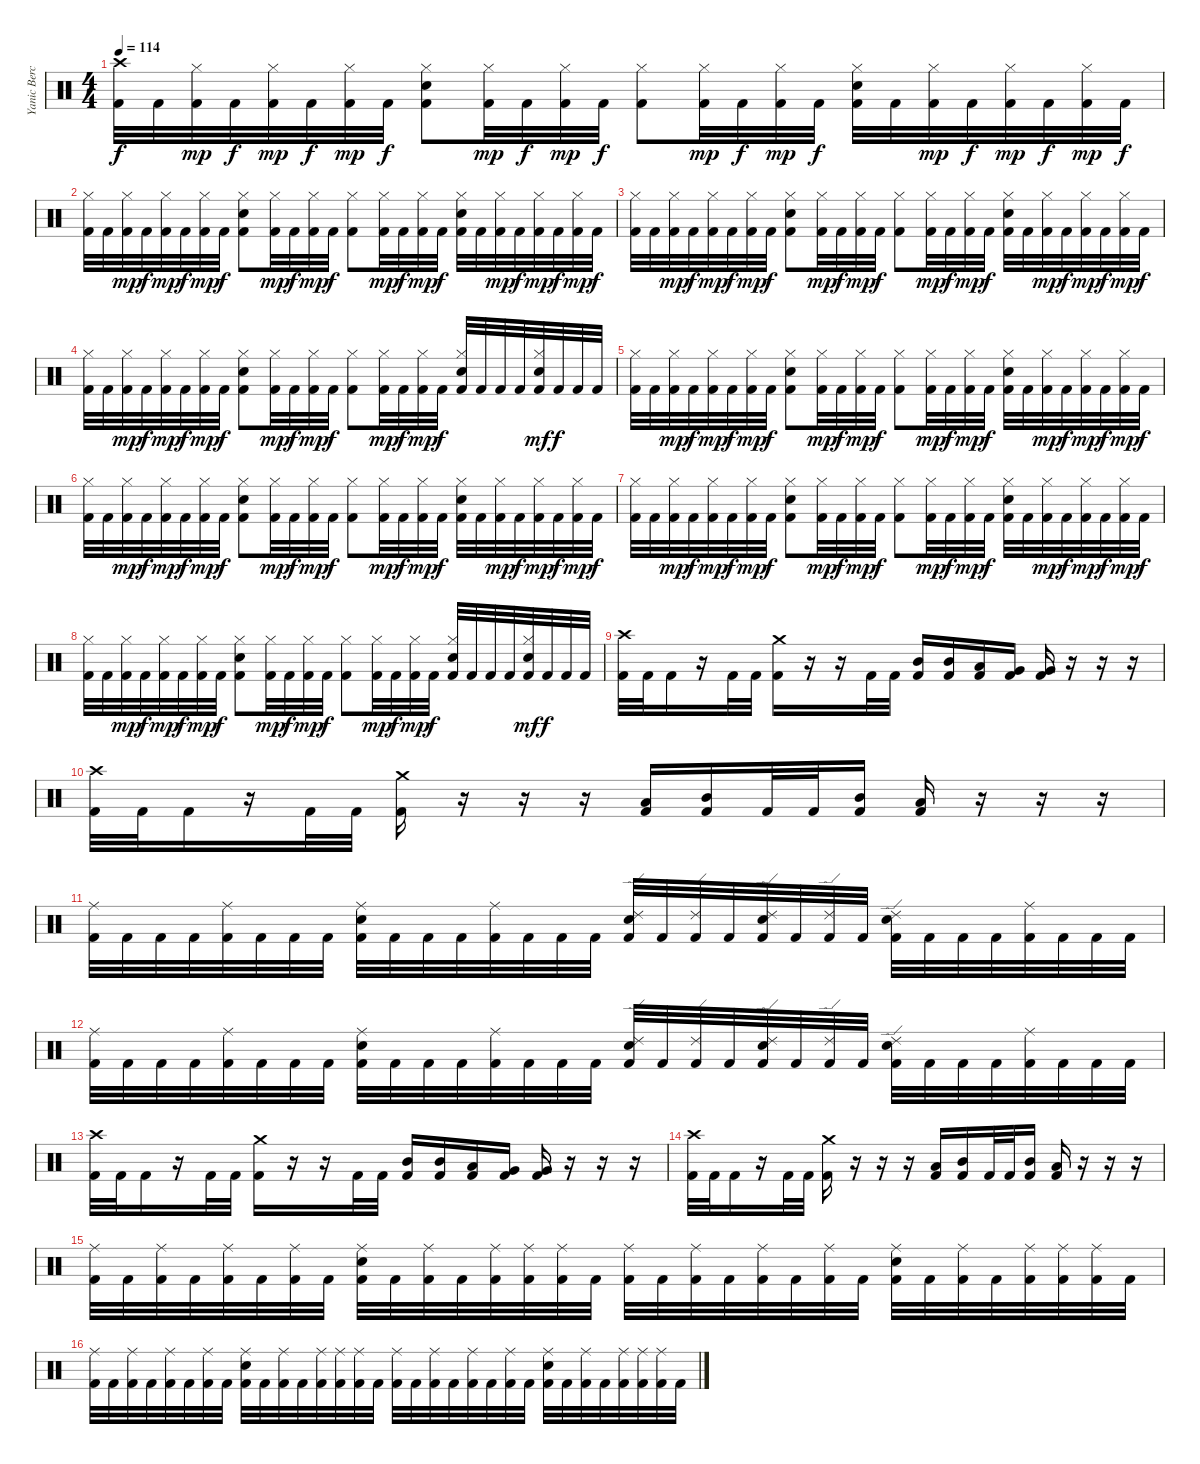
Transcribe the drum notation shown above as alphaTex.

\track ("Yanic Bercier" "Yanic Berc") {instrument percussion}
\staff {score}
\articulation defaults
\ts (4 4)
\tempo 114
\clef neutral
\ks c
("Crash high (hit)" "Kick (hit) 2").32{dy f} "Kick (hit) 2".32 ("Hi-Hat (closed)" "Kick (hit) 2").32{dy mp} "Kick (hit) 2".32{dy f} ("Hi-Hat (closed)" "Kick (hit) 2").32{dy mp} "Kick (hit) 2".32{dy f} ("Hi-Hat (closed)" "Kick (hit) 2").32{dy mp} "Kick (hit) 2".32{dy f} ("Hi-Hat (closed)" "Electric Snare (hit)" "Kick (hit) 2").8 ("Hi-Hat (closed)" "Kick (hit) 2").32{dy mp} "Kick (hit) 2".32{dy f} ("Hi-Hat (closed)" "Kick (hit) 2").32{dy mp} "Kick (hit) 2".32{dy f} ("Hi-Hat (closed)" "Kick (hit) 2").8 ("Hi-Hat (closed)" "Kick (hit) 2").32{dy mp} "Kick (hit) 2".32{dy f} ("Hi-Hat (closed)" "Kick (hit) 2").32{dy mp} "Kick (hit) 2".32{dy f} ("Hi-Hat (closed)" "Electric Snare (hit)" "Kick (hit) 2").32 "Kick (hit) 2".32 ("Hi-Hat (closed)" "Kick (hit) 2").32{dy mp} "Kick (hit) 2".32{dy f} ("Hi-Hat (closed)" "Kick (hit) 2").32{dy mp} "Kick (hit) 2".32{dy f} ("Hi-Hat (closed)" "Kick (hit) 2").32{dy mp} "Kick (hit) 2".32{dy f} |
("Hi-Hat (closed)" "Kick (hit) 2").32 "Kick (hit) 2".32 ("Hi-Hat (closed)" "Kick (hit) 2").32{dy mp} "Kick (hit) 2".32{dy f} ("Hi-Hat (closed)" "Kick (hit) 2").32{dy mp} "Kick (hit) 2".32{dy f} ("Hi-Hat (closed)" "Kick (hit) 2").32{dy mp} "Kick (hit) 2".32{dy f} ("Hi-Hat (closed)" "Electric Snare (hit)" "Kick (hit) 2").8 ("Hi-Hat (closed)" "Kick (hit) 2").32{dy mp} "Kick (hit) 2".32{dy f} ("Hi-Hat (closed)" "Kick (hit) 2").32{dy mp} "Kick (hit) 2".32{dy f} ("Hi-Hat (closed)" "Kick (hit) 2").8 ("Hi-Hat (closed)" "Kick (hit) 2").32{dy mp} "Kick (hit) 2".32{dy f} ("Hi-Hat (closed)" "Kick (hit) 2").32{dy mp} "Kick (hit) 2".32{dy f} ("Hi-Hat (closed)" "Electric Snare (hit)" "Kick (hit) 2").32 "Kick (hit) 2".32 ("Hi-Hat (closed)" "Kick (hit) 2").32{dy mp} "Kick (hit) 2".32{dy f} ("Hi-Hat (closed)" "Kick (hit) 2").32{dy mp} "Kick (hit) 2".32{dy f} ("Hi-Hat (closed)" "Kick (hit) 2").32{dy mp} "Kick (hit) 2".32{dy f} |
("Hi-Hat (closed)" "Kick (hit) 2").32 "Kick (hit) 2".32 ("Hi-Hat (closed)" "Kick (hit) 2").32{dy mp} "Kick (hit) 2".32{dy f} ("Hi-Hat (closed)" "Kick (hit) 2").32{dy mp} "Kick (hit) 2".32{dy f} ("Hi-Hat (closed)" "Kick (hit) 2").32{dy mp} "Kick (hit) 2".32{dy f} ("Hi-Hat (closed)" "Electric Snare (hit)" "Kick (hit) 2").8 ("Hi-Hat (closed)" "Kick (hit) 2").32{dy mp} "Kick (hit) 2".32{dy f} ("Hi-Hat (closed)" "Kick (hit) 2").32{dy mp} "Kick (hit) 2".32{dy f} ("Hi-Hat (closed)" "Kick (hit) 2").8 ("Hi-Hat (closed)" "Kick (hit) 2").32{dy mp} "Kick (hit) 2".32{dy f} ("Hi-Hat (closed)" "Kick (hit) 2").32{dy mp} "Kick (hit) 2".32{dy f} ("Hi-Hat (closed)" "Electric Snare (hit)" "Kick (hit) 2").32 "Kick (hit) 2".32 ("Hi-Hat (closed)" "Kick (hit) 2").32{dy mp} "Kick (hit) 2".32{dy f} ("Hi-Hat (closed)" "Kick (hit) 2").32{dy mp} "Kick (hit) 2".32{dy f} ("Hi-Hat (closed)" "Kick (hit) 2").32{dy mp} "Kick (hit) 2".32{dy f} |
("Hi-Hat (closed)" "Kick (hit) 2").32 "Kick (hit) 2".32 ("Hi-Hat (closed)" "Kick (hit) 2").32{dy mp} "Kick (hit) 2".32{dy f} ("Hi-Hat (closed)" "Kick (hit) 2").32{dy mp} "Kick (hit) 2".32{dy f} ("Hi-Hat (closed)" "Kick (hit) 2").32{dy mp} "Kick (hit) 2".32{dy f} ("Hi-Hat (closed)" "Electric Snare (hit)" "Kick (hit) 2").8 ("Hi-Hat (closed)" "Kick (hit) 2").32{dy mp} "Kick (hit) 2".32{dy f} ("Hi-Hat (closed)" "Kick (hit) 2").32{dy mp} "Kick (hit) 2".32{dy f} ("Hi-Hat (closed)" "Kick (hit) 2").8 ("Hi-Hat (closed)" "Kick (hit) 2").32{dy mp} "Kick (hit) 2".32{dy f} ("Hi-Hat (closed)" "Kick (hit) 2").32{dy mp} "Kick (hit) 2".32{dy f} ("Hi-Hat (closed)" "Electric Snare (hit)" "Kick (hit) 2").32 "Kick (hit) 2".32 "Kick (hit) 2".32 "Kick (hit) 2".32 ("Hi-Hat (closed)" "Electric Snare (hit)" "Kick (hit) 2").32{dy mf} "Kick (hit) 2".32{dy f} "Kick (hit) 2".32 "Kick (hit) 2".32 |
("Hi-Hat (closed)" "Kick (hit) 2").32 "Kick (hit) 2".32 ("Hi-Hat (closed)" "Kick (hit) 2").32{dy mp} "Kick (hit) 2".32{dy f} ("Hi-Hat (closed)" "Kick (hit) 2").32{dy mp} "Kick (hit) 2".32{dy f} ("Hi-Hat (closed)" "Kick (hit) 2").32{dy mp} "Kick (hit) 2".32{dy f} ("Hi-Hat (closed)" "Electric Snare (hit)" "Kick (hit) 2").8 ("Hi-Hat (closed)" "Kick (hit) 2").32{dy mp} "Kick (hit) 2".32{dy f} ("Hi-Hat (closed)" "Kick (hit) 2").32{dy mp} "Kick (hit) 2".32{dy f} ("Hi-Hat (closed)" "Kick (hit) 2").8 ("Hi-Hat (closed)" "Kick (hit) 2").32{dy mp} "Kick (hit) 2".32{dy f} ("Hi-Hat (closed)" "Kick (hit) 2").32{dy mp} "Kick (hit) 2".32{dy f} ("Hi-Hat (closed)" "Electric Snare (hit)" "Kick (hit) 2").32 "Kick (hit) 2".32 ("Hi-Hat (closed)" "Kick (hit) 2").32{dy mp} "Kick (hit) 2".32{dy f} ("Hi-Hat (closed)" "Kick (hit) 2").32{dy mp} "Kick (hit) 2".32{dy f} ("Hi-Hat (closed)" "Kick (hit) 2").32{dy mp} "Kick (hit) 2".32{dy f} |
("Hi-Hat (closed)" "Kick (hit) 2").32 "Kick (hit) 2".32 ("Hi-Hat (closed)" "Kick (hit) 2").32{dy mp} "Kick (hit) 2".32{dy f} ("Hi-Hat (closed)" "Kick (hit) 2").32{dy mp} "Kick (hit) 2".32{dy f} ("Hi-Hat (closed)" "Kick (hit) 2").32{dy mp} "Kick (hit) 2".32{dy f} ("Hi-Hat (closed)" "Electric Snare (hit)" "Kick (hit) 2").8 ("Hi-Hat (closed)" "Kick (hit) 2").32{dy mp} "Kick (hit) 2".32{dy f} ("Hi-Hat (closed)" "Kick (hit) 2").32{dy mp} "Kick (hit) 2".32{dy f} ("Hi-Hat (closed)" "Kick (hit) 2").8 ("Hi-Hat (closed)" "Kick (hit) 2").32{dy mp} "Kick (hit) 2".32{dy f} ("Hi-Hat (closed)" "Kick (hit) 2").32{dy mp} "Kick (hit) 2".32{dy f} ("Hi-Hat (closed)" "Electric Snare (hit)" "Kick (hit) 2").32 "Kick (hit) 2".32 ("Hi-Hat (closed)" "Kick (hit) 2").32{dy mp} "Kick (hit) 2".32{dy f} ("Hi-Hat (closed)" "Kick (hit) 2").32{dy mp} "Kick (hit) 2".32{dy f} ("Hi-Hat (closed)" "Kick (hit) 2").32{dy mp} "Kick (hit) 2".32{dy f} |
("Hi-Hat (closed)" "Kick (hit) 2").32 "Kick (hit) 2".32 ("Hi-Hat (closed)" "Kick (hit) 2").32{dy mp} "Kick (hit) 2".32{dy f} ("Hi-Hat (closed)" "Kick (hit) 2").32{dy mp} "Kick (hit) 2".32{dy f} ("Hi-Hat (closed)" "Kick (hit) 2").32{dy mp} "Kick (hit) 2".32{dy f} ("Hi-Hat (closed)" "Electric Snare (hit)" "Kick (hit) 2").8 ("Hi-Hat (closed)" "Kick (hit) 2").32{dy mp} "Kick (hit) 2".32{dy f} ("Hi-Hat (closed)" "Kick (hit) 2").32{dy mp} "Kick (hit) 2".32{dy f} ("Hi-Hat (closed)" "Kick (hit) 2").8 ("Hi-Hat (closed)" "Kick (hit) 2").32{dy mp} "Kick (hit) 2".32{dy f} ("Hi-Hat (closed)" "Kick (hit) 2").32{dy mp} "Kick (hit) 2".32{dy f} ("Hi-Hat (closed)" "Electric Snare (hit)" "Kick (hit) 2").32 "Kick (hit) 2".32 ("Hi-Hat (closed)" "Kick (hit) 2").32{dy mp} "Kick (hit) 2".32{dy f} ("Hi-Hat (closed)" "Kick (hit) 2").32{dy mp} "Kick (hit) 2".32{dy f} ("Hi-Hat (closed)" "Kick (hit) 2").32{dy mp} "Kick (hit) 2".32{dy f} |
("Hi-Hat (closed)" "Kick (hit) 2").32 "Kick (hit) 2".32 ("Hi-Hat (closed)" "Kick (hit) 2").32{dy mp} "Kick (hit) 2".32{dy f} ("Hi-Hat (closed)" "Kick (hit) 2").32{dy mp} "Kick (hit) 2".32{dy f} ("Hi-Hat (closed)" "Kick (hit) 2").32{dy mp} "Kick (hit) 2".32{dy f} ("Hi-Hat (closed)" "Electric Snare (hit)" "Kick (hit) 2").8 ("Hi-Hat (closed)" "Kick (hit) 2").32{dy mp} "Kick (hit) 2".32{dy f} ("Hi-Hat (closed)" "Kick (hit) 2").32{dy mp} "Kick (hit) 2".32{dy f} ("Hi-Hat (closed)" "Kick (hit) 2").8 ("Hi-Hat (closed)" "Kick (hit) 2").32{dy mp} "Kick (hit) 2".32{dy f} ("Hi-Hat (closed)" "Kick (hit) 2").32{dy mp} "Kick (hit) 2".32{dy f} ("Hi-Hat (closed)" "Electric Snare (hit)" "Kick (hit) 2").32 "Kick (hit) 2".32 "Kick (hit) 2".32 "Kick (hit) 2".32 ("Hi-Hat (closed)" "Electric Snare (hit)" "Kick (hit) 2").32{dy mf} "Kick (hit) 2".32{dy f} "Kick (hit) 2".32 "Kick (hit) 2".32 |
("Crash high (hit)" "Kick (hit) 2").32 "Kick (hit) 2".32 "Kick (hit) 2".16 r.16 "Kick (hit) 2".32 "Kick (hit) 2".32 ("Crash medium (hit)" "Kick (hit) 2").16 r.16 r.16 "Kick (hit) 2".32 "Kick (hit) 2".32 ("Mid Tom (hit)" "Kick (hit) 2").16 ("Mid Tom (hit)" "Kick (hit) 2").16 ("Low Tom (hit)" "Kick (hit) 2").16 ("Very Low Tom (hit)" "Kick (hit) 2").16 ("Very Low Tom (hit)" "Kick (hit) 2").16 r.16 r.16 r.16 |
("Crash high (hit)" "Kick (hit) 2").32 "Kick (hit) 2".32 "Kick (hit) 2".16 r.16 "Kick (hit) 2".32 "Kick (hit) 2".32 ("Crash medium (hit)" "Kick (hit) 2").16 r.16 r.16 r.16 ("Low Tom (hit)" "Kick (hit) 2").16 ("Mid Tom (hit)" "Kick (hit) 2").16 "Kick (hit) 2".32 "Kick (hit) 2".32 ("Mid Tom (hit)" "Kick (hit) 2").16 ("Low Tom (hit)" "Kick (hit) 2").16 r.16 r.16 r.16 |
("Ride (middle)" "Kick (hit) 2").32 "Kick (hit) 2".32 "Kick (hit) 2".32 "Kick (hit) 2".32 ("Ride (middle)" "Kick (hit) 2").32 "Kick (hit) 2".32 "Kick (hit) 2".32 "Kick (hit) 2".32 ("Ride (middle)" "Electric Snare (hit)" "Kick (hit) 2").32 "Kick (hit) 2".32 "Kick (hit) 2".32 "Kick (hit) 2".32 ("Ride (middle)" "Kick (hit) 2").32 "Kick (hit) 2".32 "Kick (hit) 2".32 "Kick (hit) 2".32 ("Ride (edge) 2" "Electric Snare (hit)" "Kick (hit) 2").32 "Kick (hit) 2".32 ("Ride (edge) 2" "Kick (hit) 2").32 "Kick (hit) 2".32 ("Ride (edge) 2" "Electric Snare (hit)" "Kick (hit) 2").32 "Kick (hit) 2".32 ("Ride (edge) 2" "Kick (hit) 2").32 "Kick (hit) 2".32 ("Ride (edge) 2" "Electric Snare (hit)" "Kick (hit) 2").32 "Kick (hit) 2".32 "Kick (hit) 2".32 "Kick (hit) 2".32 ("Ride (middle)" "Kick (hit) 2").32 "Kick (hit) 2".32 "Kick (hit) 2".32 "Kick (hit) 2".32 |
("Ride (middle)" "Kick (hit) 2").32 "Kick (hit) 2".32 "Kick (hit) 2".32 "Kick (hit) 2".32 ("Ride (middle)" "Kick (hit) 2").32 "Kick (hit) 2".32 "Kick (hit) 2".32 "Kick (hit) 2".32 ("Ride (middle)" "Electric Snare (hit)" "Kick (hit) 2").32 "Kick (hit) 2".32 "Kick (hit) 2".32 "Kick (hit) 2".32 ("Ride (middle)" "Kick (hit) 2").32 "Kick (hit) 2".32 "Kick (hit) 2".32 "Kick (hit) 2".32 ("Ride (edge) 2" "Electric Snare (hit)" "Kick (hit) 2").32 "Kick (hit) 2".32 ("Ride (edge) 2" "Kick (hit) 2").32 "Kick (hit) 2".32 ("Ride (edge) 2" "Electric Snare (hit)" "Kick (hit) 2").32 "Kick (hit) 2".32 ("Ride (edge) 2" "Kick (hit) 2").32 "Kick (hit) 2".32 ("Ride (edge) 2" "Electric Snare (hit)" "Kick (hit) 2").32 "Kick (hit) 2".32 "Kick (hit) 2".32 "Kick (hit) 2".32 ("Ride (middle)" "Kick (hit) 2").32 "Kick (hit) 2".32 "Kick (hit) 2".32 "Kick (hit) 2".32 |
("Crash high (hit)" "Kick (hit) 2").32 "Kick (hit) 2".32 "Kick (hit) 2".16 r.16 "Kick (hit) 2".32 "Kick (hit) 2".32 ("Crash medium (hit)" "Kick (hit) 2").16 r.16 r.16 "Kick (hit) 2".32 "Kick (hit) 2".32 ("Mid Tom (hit)" "Kick (hit) 2").16 ("Mid Tom (hit)" "Kick (hit) 2").16 ("Low Tom (hit)" "Kick (hit) 2").16 ("Very Low Tom (hit)" "Kick (hit) 2").16 ("Very Low Tom (hit)" "Kick (hit) 2").16 r.16 r.16 r.16 |
("Crash high (hit)" "Kick (hit) 2").32 "Kick (hit) 2".32 "Kick (hit) 2".16 r.16 "Kick (hit) 2".32 "Kick (hit) 2".32 ("Crash medium (hit)" "Kick (hit) 2").16 r.16 r.16 r.16 ("Low Tom (hit)" "Kick (hit) 2").16 ("Mid Tom (hit)" "Kick (hit) 2").16 "Kick (hit) 2".32 "Kick (hit) 2".32 ("Mid Tom (hit)" "Kick (hit) 2").16 ("Low Tom (hit)" "Kick (hit) 2").16 r.16 r.16 r.16 |
("Ride (middle)" "Kick (hit) 2").32 "Kick (hit) 2".32 ("Ride (middle)" "Kick (hit) 2").32 "Kick (hit) 2".32 ("Ride (middle)" "Kick (hit) 2").32 "Kick (hit) 2".32 ("Ride (middle)" "Kick (hit) 2").32 "Kick (hit) 2".32 ("Ride (middle)" "Electric Snare (hit)" "Kick (hit) 2").32 "Kick (hit) 2".32 ("Ride (middle)" "Kick (hit) 2").32 "Kick (hit) 2".32 ("Ride (middle)" "Kick (hit) 2").32 ("Ride (middle)" "Kick (hit) 2").32 ("Ride (middle)" "Kick (hit) 2").32 "Kick (hit) 2".32 ("Ride (middle)" "Kick (hit) 2").32 "Kick (hit) 2".32 ("Ride (middle)" "Kick (hit) 2").32 "Kick (hit) 2".32 ("Ride (middle)" "Kick (hit) 2").32 "Kick (hit) 2".32 ("Ride (middle)" "Kick (hit) 2").32 "Kick (hit) 2".32 ("Ride (middle)" "Electric Snare (hit)" "Kick (hit) 2").32 "Kick (hit) 2".32 ("Ride (middle)" "Kick (hit) 2").32 "Kick (hit) 2".32 ("Ride (middle)" "Kick (hit) 2").32 ("Ride (middle)" "Kick (hit) 2").32 ("Ride (middle)" "Kick (hit) 2").32 "Kick (hit) 2".32 |
("Ride (middle)" "Kick (hit) 2").32 "Kick (hit) 2".32 ("Ride (middle)" "Kick (hit) 2").32 "Kick (hit) 2".32 ("Ride (middle)" "Kick (hit) 2").32 "Kick (hit) 2".32 ("Ride (middle)" "Kick (hit) 2").32 "Kick (hit) 2".32 ("Ride (middle)" "Electric Snare (hit)" "Kick (hit) 2").32 "Kick (hit) 2".32 ("Ride (middle)" "Kick (hit) 2").32 "Kick (hit) 2".32 ("Ride (middle)" "Kick (hit) 2").32 ("Ride (middle)" "Kick (hit) 2").32 ("Ride (middle)" "Kick (hit) 2").32 "Kick (hit) 2".32 ("Ride (middle)" "Kick (hit) 2").32 "Kick (hit) 2".32 ("Ride (middle)" "Kick (hit) 2").32 "Kick (hit) 2".32 ("Ride (middle)" "Kick (hit) 2").32 "Kick (hit) 2".32 ("Ride (middle)" "Kick (hit) 2").32 "Kick (hit) 2".32 ("Ride (middle)" "Electric Snare (hit)" "Kick (hit) 2").32 "Kick (hit) 2".32 ("Ride (middle)" "Kick (hit) 2").32 "Kick (hit) 2".32 ("Ride (middle)" "Kick (hit) 2").32 ("Ride (middle)" "Kick (hit) 2").32 ("Ride (middle)" "Kick (hit) 2").32 "Kick (hit) 2".32
